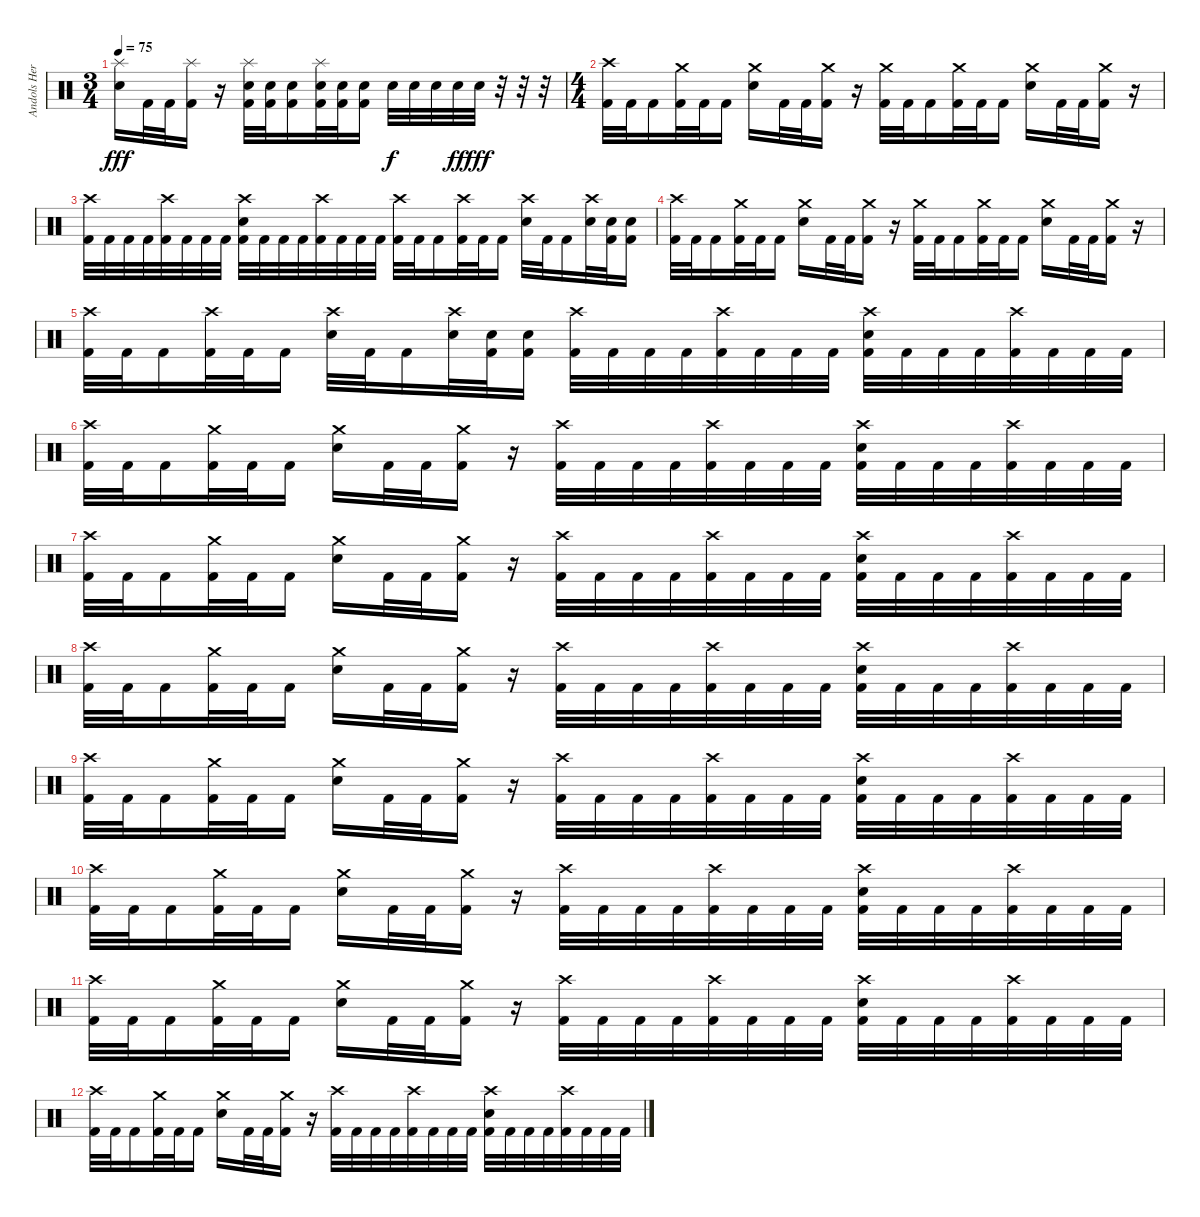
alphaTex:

\track ("Andols Herrick" "Andols Her") {instrument percussion}
\staff {score}
\articulation defaults
\ts (3 4)
\tempo 75
\clef neutral
\ks c
("Splash (hit)" "Snare (hit) 2").16{dy fff} "Kick (hit) 2".32 "Kick (hit) 2".32 ("Splash (hit)" "Kick (hit) 2").16 r.16 ("Splash (hit)" "Snare (hit) 2" "Kick (hit) 2").32 ("Snare (hit) 2" "Kick (hit) 2").32 ("Snare (hit) 2" "Kick (hit) 2").16 ("Splash (hit)" "Snare (hit) 2" "Kick (hit) 2").32 ("Snare (hit) 2" "Kick (hit) 2").32 ("Snare (hit) 2" "Kick (hit) 2").16 "Electric Snare (hit)".32{dy f} "Electric Snare (hit)".32 "Electric Snare (hit)".32 "Electric Snare (hit)".32{dy ff} "Electric Snare (hit)".32{dy fff} r.32 r.32 r.32 |
\ts (4 4)
("Crash high (hit)" "Kick (hit) 2").32 "Kick (hit) 2".32 "Kick (hit) 2".16 ("Crash medium (hit)" "Kick (hit) 2").32 "Kick (hit) 2".32 "Kick (hit) 2".16 ("Crash medium (hit)" "Snare (hit) 2").16 "Kick (hit) 2".32 "Kick (hit) 2".32 ("Crash medium (hit)" "Kick (hit) 2").16 r.16 ("Crash medium (hit)" "Kick (hit) 2").32 "Kick (hit) 2".32 "Kick (hit) 2".16 ("Crash medium (hit)" "Kick (hit) 2").32 "Kick (hit) 2".32 "Kick (hit) 2".16 ("Crash medium (hit)" "Snare (hit) 2").16 "Kick (hit) 2".32 "Kick (hit) 2".32 ("Crash medium (hit)" "Kick (hit) 2").16 r.16 |
("Crash high (hit)" "Kick (hit) 2").32 "Kick (hit) 2".32 "Kick (hit) 2".32 "Kick (hit) 2".32 ("Crash high (hit)" "Kick (hit) 2").32 "Kick (hit) 2".32 "Kick (hit) 2".32 "Kick (hit) 2".32 ("Crash high (hit)" "Snare (hit) 2" "Kick (hit) 2").32 "Kick (hit) 2".32 "Kick (hit) 2".32 "Kick (hit) 2".32 ("Crash high (hit)" "Kick (hit) 2").32 "Kick (hit) 2".32 "Kick (hit) 2".32 "Kick (hit) 2".32 ("Crash high (hit)" "Kick (hit) 2").32 "Kick (hit) 2".32 "Kick (hit) 2".16 ("Crash high (hit)" "Kick (hit) 2").32 "Kick (hit) 2".32 "Kick (hit) 2".16 ("Crash high (hit)" "Snare (hit) 2").32 "Kick (hit) 2".32 "Kick (hit) 2".16 ("Crash high (hit)" "Snare (hit) 2").32 ("Snare (hit) 2" "Kick (hit) 2").32 ("Snare (hit) 2" "Kick (hit) 2").16 |
("Crash high (hit)" "Kick (hit) 2").32 "Kick (hit) 2".32 "Kick (hit) 2".16 ("Crash medium (hit)" "Kick (hit) 2").32 "Kick (hit) 2".32 "Kick (hit) 2".16 ("Crash medium (hit)" "Snare (hit) 2").16 "Kick (hit) 2".32 "Kick (hit) 2".32 ("Crash medium (hit)" "Kick (hit) 2").16 r.16 ("Crash medium (hit)" "Kick (hit) 2").32 "Kick (hit) 2".32 "Kick (hit) 2".16 ("Crash medium (hit)" "Kick (hit) 2").32 "Kick (hit) 2".32 "Kick (hit) 2".16 ("Crash medium (hit)" "Snare (hit) 2").16 "Kick (hit) 2".32 "Kick (hit) 2".32 ("Crash medium (hit)" "Kick (hit) 2").16 r.16 |
("Crash high (hit)" "Kick (hit) 2").32 "Kick (hit) 2".32 "Kick (hit) 2".16 ("Crash high (hit)" "Kick (hit) 2").32 "Kick (hit) 2".32 "Kick (hit) 2".16 ("Crash high (hit)" "Snare (hit) 2").32 "Kick (hit) 2".32 "Kick (hit) 2".16 ("Crash high (hit)" "Snare (hit) 2").32 ("Snare (hit) 2" "Kick (hit) 2").32 ("Snare (hit) 2" "Kick (hit) 2").16 ("Crash high (hit)" "Kick (hit) 2").32 "Kick (hit) 2".32 "Kick (hit) 2".32 "Kick (hit) 2".32 ("Crash high (hit)" "Kick (hit) 2").32 "Kick (hit) 2".32 "Kick (hit) 2".32 "Kick (hit) 2".32 ("Crash high (hit)" "Snare (hit) 2" "Kick (hit) 2").32 "Kick (hit) 2".32 "Kick (hit) 2".32 "Kick (hit) 2".32 ("Crash high (hit)" "Kick (hit) 2").32 "Kick (hit) 2".32 "Kick (hit) 2".32 "Kick (hit) 2".32 |
("Crash high (hit)" "Kick (hit) 2").32 "Kick (hit) 2".32 "Kick (hit) 2".16 ("Crash medium (hit)" "Kick (hit) 2").32 "Kick (hit) 2".32 "Kick (hit) 2".16 ("Crash medium (hit)" "Snare (hit) 2").16 "Kick (hit) 2".32 "Kick (hit) 2".32 ("Crash medium (hit)" "Kick (hit) 2").16 r.16 ("Crash high (hit)" "Kick (hit) 2").32 "Kick (hit) 2".32 "Kick (hit) 2".32 "Kick (hit) 2".32 ("Crash high (hit)" "Kick (hit) 2").32 "Kick (hit) 2".32 "Kick (hit) 2".32 "Kick (hit) 2".32 ("Crash high (hit)" "Snare (hit) 2" "Kick (hit) 2").32 "Kick (hit) 2".32 "Kick (hit) 2".32 "Kick (hit) 2".32 ("Crash high (hit)" "Kick (hit) 2").32 "Kick (hit) 2".32 "Kick (hit) 2".32 "Kick (hit) 2".32 |
("Crash high (hit)" "Kick (hit) 2").32 "Kick (hit) 2".32 "Kick (hit) 2".16 ("Crash medium (hit)" "Kick (hit) 2").32 "Kick (hit) 2".32 "Kick (hit) 2".16 ("Crash medium (hit)" "Snare (hit) 2").16 "Kick (hit) 2".32 "Kick (hit) 2".32 ("Crash medium (hit)" "Kick (hit) 2").16 r.16 ("Crash high (hit)" "Kick (hit) 2").32 "Kick (hit) 2".32 "Kick (hit) 2".32 "Kick (hit) 2".32 ("Crash high (hit)" "Kick (hit) 2").32 "Kick (hit) 2".32 "Kick (hit) 2".32 "Kick (hit) 2".32 ("Crash high (hit)" "Snare (hit) 2" "Kick (hit) 2").32 "Kick (hit) 2".32 "Kick (hit) 2".32 "Kick (hit) 2".32 ("Crash high (hit)" "Kick (hit) 2").32 "Kick (hit) 2".32 "Kick (hit) 2".32 "Kick (hit) 2".32 |
("Crash high (hit)" "Kick (hit) 2").32 "Kick (hit) 2".32 "Kick (hit) 2".16 ("Crash medium (hit)" "Kick (hit) 2").32 "Kick (hit) 2".32 "Kick (hit) 2".16 ("Crash medium (hit)" "Snare (hit) 2").16 "Kick (hit) 2".32 "Kick (hit) 2".32 ("Crash medium (hit)" "Kick (hit) 2").16 r.16 ("Crash high (hit)" "Kick (hit) 2").32 "Kick (hit) 2".32 "Kick (hit) 2".32 "Kick (hit) 2".32 ("Crash high (hit)" "Kick (hit) 2").32 "Kick (hit) 2".32 "Kick (hit) 2".32 "Kick (hit) 2".32 ("Crash high (hit)" "Snare (hit) 2" "Kick (hit) 2").32 "Kick (hit) 2".32 "Kick (hit) 2".32 "Kick (hit) 2".32 ("Crash high (hit)" "Kick (hit) 2").32 "Kick (hit) 2".32 "Kick (hit) 2".32 "Kick (hit) 2".32 |
("Crash high (hit)" "Kick (hit) 2").32 "Kick (hit) 2".32 "Kick (hit) 2".16 ("Crash medium (hit)" "Kick (hit) 2").32 "Kick (hit) 2".32 "Kick (hit) 2".16 ("Crash medium (hit)" "Snare (hit) 2").16 "Kick (hit) 2".32 "Kick (hit) 2".32 ("Crash medium (hit)" "Kick (hit) 2").16 r.16 ("Crash high (hit)" "Kick (hit) 2").32 "Kick (hit) 2".32 "Kick (hit) 2".32 "Kick (hit) 2".32 ("Crash high (hit)" "Kick (hit) 2").32 "Kick (hit) 2".32 "Kick (hit) 2".32 "Kick (hit) 2".32 ("Crash high (hit)" "Snare (hit) 2" "Kick (hit) 2").32 "Kick (hit) 2".32 "Kick (hit) 2".32 "Kick (hit) 2".32 ("Crash high (hit)" "Kick (hit) 2").32 "Kick (hit) 2".32 "Kick (hit) 2".32 "Kick (hit) 2".32 |
("Crash high (hit)" "Kick (hit) 2").32 "Kick (hit) 2".32 "Kick (hit) 2".16 ("Crash medium (hit)" "Kick (hit) 2").32 "Kick (hit) 2".32 "Kick (hit) 2".16 ("Crash medium (hit)" "Snare (hit) 2").16 "Kick (hit) 2".32 "Kick (hit) 2".32 ("Crash medium (hit)" "Kick (hit) 2").16 r.16 ("Crash high (hit)" "Kick (hit) 2").32 "Kick (hit) 2".32 "Kick (hit) 2".32 "Kick (hit) 2".32 ("Crash high (hit)" "Kick (hit) 2").32 "Kick (hit) 2".32 "Kick (hit) 2".32 "Kick (hit) 2".32 ("Crash high (hit)" "Snare (hit) 2" "Kick (hit) 2").32 "Kick (hit) 2".32 "Kick (hit) 2".32 "Kick (hit) 2".32 ("Crash high (hit)" "Kick (hit) 2").32 "Kick (hit) 2".32 "Kick (hit) 2".32 "Kick (hit) 2".32 |
("Crash high (hit)" "Kick (hit) 2").32 "Kick (hit) 2".32 "Kick (hit) 2".16 ("Crash medium (hit)" "Kick (hit) 2").32 "Kick (hit) 2".32 "Kick (hit) 2".16 ("Crash medium (hit)" "Snare (hit) 2").16 "Kick (hit) 2".32 "Kick (hit) 2".32 ("Crash medium (hit)" "Kick (hit) 2").16 r.16 ("Crash high (hit)" "Kick (hit) 2").32 "Kick (hit) 2".32 "Kick (hit) 2".32 "Kick (hit) 2".32 ("Crash high (hit)" "Kick (hit) 2").32 "Kick (hit) 2".32 "Kick (hit) 2".32 "Kick (hit) 2".32 ("Crash high (hit)" "Snare (hit) 2" "Kick (hit) 2").32 "Kick (hit) 2".32 "Kick (hit) 2".32 "Kick (hit) 2".32 ("Crash high (hit)" "Kick (hit) 2").32 "Kick (hit) 2".32 "Kick (hit) 2".32 "Kick (hit) 2".32 |
("Crash high (hit)" "Kick (hit) 2").32 "Kick (hit) 2".32 "Kick (hit) 2".16 ("Crash medium (hit)" "Kick (hit) 2").32 "Kick (hit) 2".32 "Kick (hit) 2".16 ("Crash medium (hit)" "Snare (hit) 2").16 "Kick (hit) 2".32 "Kick (hit) 2".32 ("Crash medium (hit)" "Kick (hit) 2").16 r.16 ("Crash high (hit)" "Kick (hit) 2").32 "Kick (hit) 2".32 "Kick (hit) 2".32 "Kick (hit) 2".32 ("Crash high (hit)" "Kick (hit) 2").32 "Kick (hit) 2".32 "Kick (hit) 2".32 "Kick (hit) 2".32 ("Crash high (hit)" "Snare (hit) 2" "Kick (hit) 2").32 "Kick (hit) 2".32 "Kick (hit) 2".32 "Kick (hit) 2".32 ("Crash high (hit)" "Kick (hit) 2").32 "Kick (hit) 2".32 "Kick (hit) 2".32 "Kick (hit) 2".32
